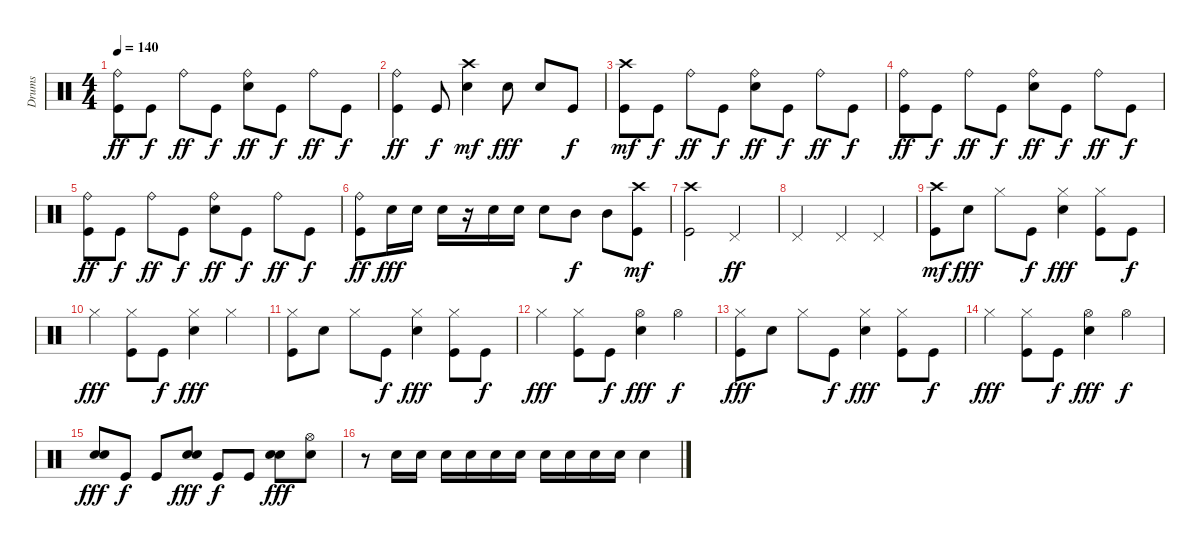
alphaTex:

\track ("Drums" "Drums") {instrument percussion}
\staff {score}
\articulation defaults
\ts (4 4)
\tempo 140
\clef neutral
\ks c
("Kick (hit)" "Ride (bell)").8{dy ff} "Kick (hit)".8{dy f} "Ride (bell)".8{dy ff} "Kick (hit)".8{dy f} ("Electric Snare (hit)" "Ride (bell)").8{dy ff} "Kick (hit)".8{dy f} "Ride (bell)".8{dy ff} "Kick (hit)".8{dy f} |
("Ride (bell)" "Kick (hit)").4{dy ff} "Kick (hit)".8{dy f} ("Electric Snare (hit)" "Crash high (hit)").4{dy mf} "Electric Snare (hit)".8{dy fff} "Electric Snare (hit)".8 "Kick (hit)".8{dy f} |
("Kick (hit)" "Crash high (hit)").8{dy mf} "Kick (hit)".8{dy f} "Ride (bell)".8{dy ff} "Kick (hit)".8{dy f} ("Electric Snare (hit)" "Ride (bell)").8{dy ff} "Kick (hit)".8{dy f} "Ride (bell)".8{dy ff} "Kick (hit)".8{dy f} |
("Kick (hit)" "Ride (bell)").8{dy ff} "Kick (hit)".8{dy f} "Ride (bell)".8{dy ff} "Kick (hit)".8{dy f} ("Electric Snare (hit)" "Ride (bell)").8{dy ff} "Kick (hit)".8{dy f} "Ride (bell)".8{dy ff} "Kick (hit)".8{dy f} |
("Kick (hit)" "Ride (bell)").8{dy ff} "Kick (hit)".8{dy f} "Ride (bell)".8{dy ff} "Kick (hit)".8{dy f} ("Electric Snare (hit)" "Ride (bell)").8{dy ff} "Kick (hit)".8{dy f} "Ride (bell)".8{dy ff} "Kick (hit)".8{dy f} |
("Kick (hit)" "Ride (bell)").8{dy ff} "Electric Snare (hit)".16{dy fff} "Electric Snare (hit)".16 "Electric Snare (hit)".16 r.16 "Electric Snare (hit)".16 "Electric Snare (hit)".16 "Electric Snare (hit)".8 "Mid Tom (hit)".8{dy f} "Mid Tom (hit)".8 ("Crash high (hit)" "Kick (hit)").8{dy mf} |
("Crash high (hit)" "Kick (hit)").2 "Pedal Hi-Hat (hit)".2{dy ff} |
"Pedal Hi-Hat (hit)".2 "Pedal Hi-Hat (hit)".4 "Pedal Hi-Hat (hit)".4 |
("Kick (hit)" "Crash high (hit)").8{dy mf} "Electric Snare (hit)".8{dy fff} "Hi-Hat (closed)".8 "Kick (hit)".8{dy f} ("Electric Snare (hit)" "Hi-Hat (closed)").4{dy fff} ("Kick (hit)" "Hi-Hat (closed)").8 "Kick (hit)".8{dy f} |
"Hi-Hat (closed)".4{dy fff} ("Kick (hit)" "Hi-Hat (closed)").8 "Kick (hit)".8{dy f} ("Electric Snare (hit)" "Hi-Hat (closed)").4{dy fff} "Hi-Hat (closed)".4 |
("Kick (hit)" "Hi-Hat (closed)").8 "Electric Snare (hit)".8 "Hi-Hat (closed)".8 "Kick (hit)".8{dy f} ("Electric Snare (hit)" "Hi-Hat (closed)").4{dy fff} ("Kick (hit)" "Hi-Hat (closed)").8 "Kick (hit)".8{dy f} |
"Hi-Hat (closed)".4{dy fff} ("Kick (hit)" "Hi-Hat (closed)").8 "Kick (hit)".8{dy f} ("Electric Snare (hit)" "Hi-Hat (open)").4{dy fff} "Hi-Hat (open)".4{dy f} |
("Kick (hit)" "Hi-Hat (closed)").8{dy fff} "Electric Snare (hit)".8 "Hi-Hat (closed)".8 "Kick (hit)".8{dy f} ("Electric Snare (hit)" "Hi-Hat (closed)").4{dy fff} ("Kick (hit)" "Hi-Hat (closed)").8 "Kick (hit)".8{dy f} |
"Hi-Hat (closed)".4{dy fff} ("Kick (hit)" "Hi-Hat (closed)").8 "Kick (hit)".8{dy f} ("Electric Snare (hit)" "Hi-Hat (open)").4{dy fff} "Hi-Hat (open)".4{dy f} |
("Electric Snare (hit)" "Electric Snare (hit)").8{dy fff} "Kick (hit)".8{dy f} "Kick (hit)".8 ("Electric Snare (hit)" "Electric Snare (hit)").8{dy fff} "Kick (hit)".8{dy f} "Kick (hit)".8 ("Electric Snare (hit)" "Electric Snare (hit)").8{dy fff} ("Hi-Hat (open)" "Electric Snare (hit)").8 |
r.8 "Electric Snare (hit)".16 "Electric Snare (hit)".16 "Electric Snare (hit)".16 "Electric Snare (hit)".16 "Electric Snare (hit)".16 "Electric Snare (hit)".16 "Electric Snare (hit)".16 "Electric Snare (hit)".16 "Electric Snare (hit)".16 "Electric Snare (hit)".16 "Electric Snare (hit)".4
